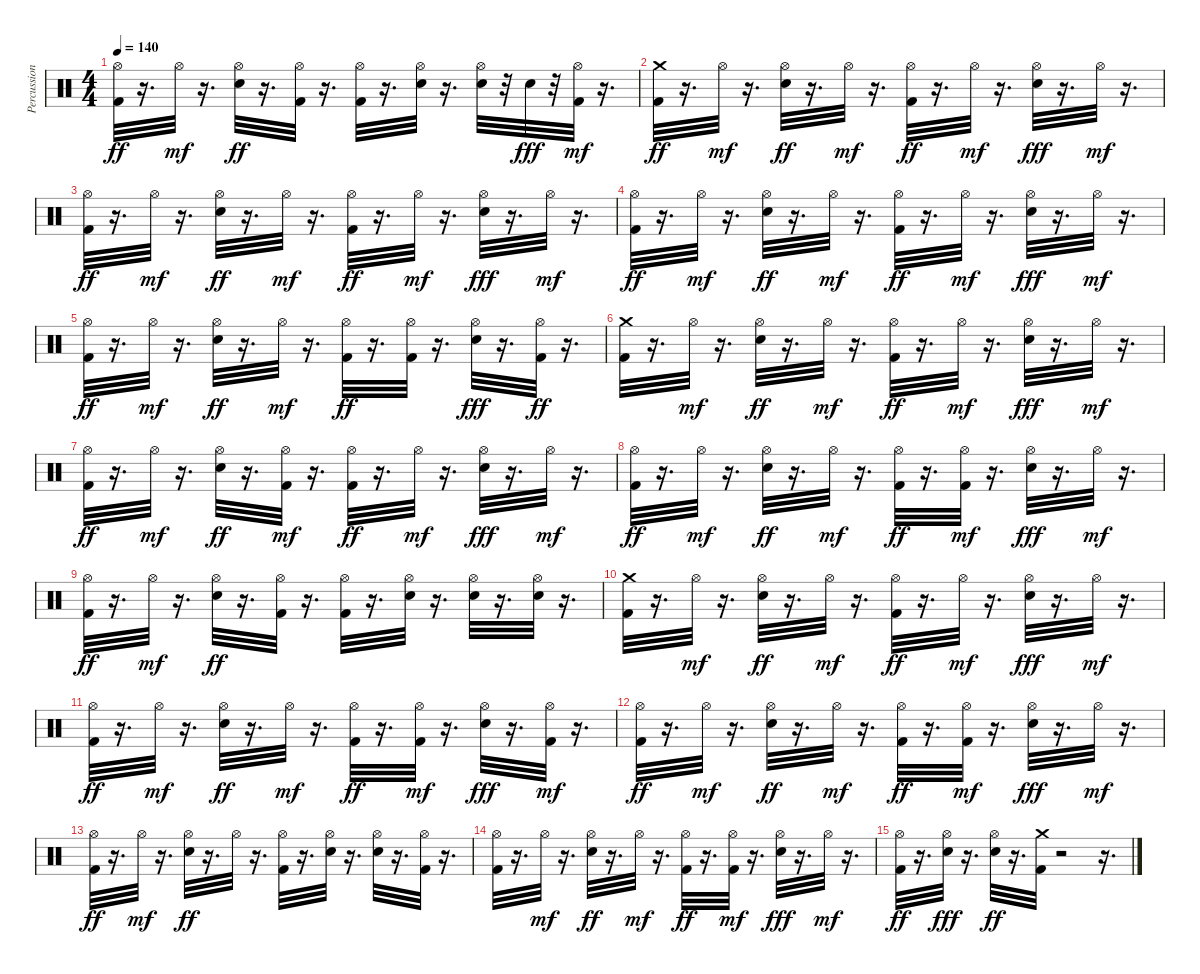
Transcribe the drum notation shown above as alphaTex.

\track ("Percussion" "Percussion") {instrument percussion}
\staff {score}
\articulation defaults
\ts (4 4)
\tempo 140
\clef neutral
\ks c
("Kick (hit) 2" "Hi-Hat (open)").32{dy ff} r.16{d} "Hi-Hat (open)".32{dy mf} r.16{d} ("Electric Snare (hit)" "Hi-Hat (open)").32{dy ff} r.16{d} ("Kick (hit) 2" "Hi-Hat (open)").32 r.16{d} ("Kick (hit) 2" "Hi-Hat (open)").32 r.16{d} ("Electric Snare (hit)" "Hi-Hat (open)").32 r.16{d} ("Electric Snare (hit)" "Hi-Hat (open)").32 r.32 "Electric Snare (hit)".32{dy fff} r.32 ("Kick (hit) 2" "Hi-Hat (open)").32{dy mf} r.16{d} |
("Crash medium (hit)" "Kick (hit) 2").32{dy ff} r.16{d} "Hi-Hat (open)".32{dy mf} r.16{d} ("Electric Snare (hit)" "Hi-Hat (open)").32{dy ff} r.16{d} "Hi-Hat (open)".32{dy mf} r.16{d} ("Kick (hit) 2" "Hi-Hat (open)").32{dy ff} r.16{d} "Hi-Hat (open)".32{dy mf} r.16{d} ("Electric Snare (hit)" "Hi-Hat (open)").32{dy fff} r.16{d} "Hi-Hat (open)".32{dy mf} r.16{d} |
("Kick (hit) 2" "Hi-Hat (open)").32{dy ff} r.16{d} "Hi-Hat (open)".32{dy mf} r.16{d} ("Electric Snare (hit)" "Hi-Hat (open)").32{dy ff} r.16{d} "Hi-Hat (open)".32{dy mf} r.16{d} ("Kick (hit) 2" "Hi-Hat (open)").32{dy ff} r.16{d} "Hi-Hat (open)".32{dy mf} r.16{d} ("Electric Snare (hit)" "Hi-Hat (open)").32{dy fff} r.16{d} "Hi-Hat (open)".32{dy mf} r.16{d} |
("Kick (hit) 2" "Hi-Hat (open)").32{dy ff} r.16{d} "Hi-Hat (open)".32{dy mf} r.16{d} ("Electric Snare (hit)" "Hi-Hat (open)").32{dy ff} r.16{d} "Hi-Hat (open)".32{dy mf} r.16{d} ("Kick (hit) 2" "Hi-Hat (open)").32{dy ff} r.16{d} "Hi-Hat (open)".32{dy mf} r.16{d} ("Electric Snare (hit)" "Hi-Hat (open)").32{dy fff} r.16{d} "Hi-Hat (open)".32{dy mf} r.16{d} |
("Kick (hit) 2" "Hi-Hat (open)").32{dy ff} r.16{d} "Hi-Hat (open)".32{dy mf} r.16{d} ("Electric Snare (hit)" "Hi-Hat (open)").32{dy ff} r.16{d} "Hi-Hat (open)".32{dy mf} r.16{d} ("Kick (hit) 2" "Hi-Hat (open)").32{dy ff} r.16{d} ("Hi-Hat (open)" "Kick (hit) 2").32 r.16{d} ("Electric Snare (hit)" "Hi-Hat (open)").32{dy fff} r.16{d} ("Hi-Hat (open)" "Kick (hit) 2").32{dy ff} r.16{d} |
("Kick (hit) 2" "Crash medium (hit)").32 r.16{d} "Hi-Hat (open)".32{dy mf} r.16{d} ("Electric Snare (hit)" "Hi-Hat (open)").32{dy ff} r.16{d} "Hi-Hat (open)".32{dy mf} r.16{d} ("Kick (hit) 2" "Hi-Hat (open)").32{dy ff} r.16{d} "Hi-Hat (open)".32{dy mf} r.16{d} ("Electric Snare (hit)" "Hi-Hat (open)").32{dy fff} r.16{d} "Hi-Hat (open)".32{dy mf} r.16{d} |
("Kick (hit) 2" "Hi-Hat (open)").32{dy ff} r.16{d} "Hi-Hat (open)".32{dy mf} r.16{d} ("Electric Snare (hit)" "Hi-Hat (open)").32{dy ff} r.16{d} ("Kick (hit) 2" "Hi-Hat (open)").32{dy mf} r.16{d} ("Kick (hit) 2" "Hi-Hat (open)").32{dy ff} r.16{d} "Hi-Hat (open)".32{dy mf} r.16{d} ("Electric Snare (hit)" "Hi-Hat (open)").32{dy fff} r.16{d} "Hi-Hat (open)".32{dy mf} r.16{d} |
("Kick (hit) 2" "Hi-Hat (open)").32{dy ff} r.16{d} "Hi-Hat (open)".32{dy mf} r.16{d} ("Electric Snare (hit)" "Hi-Hat (open)").32{dy ff} r.16{d} "Hi-Hat (open)".32{dy mf} r.16{d} ("Kick (hit) 2" "Hi-Hat (open)").32{dy ff} r.16{d} ("Kick (hit) 2" "Hi-Hat (open)").32{dy mf} r.16{d} ("Electric Snare (hit)" "Hi-Hat (open)").32{dy fff} r.16{d} "Hi-Hat (open)".32{dy mf} r.16{d} |
("Kick (hit) 2" "Hi-Hat (open)").32{dy ff} r.16{d} "Hi-Hat (open)".32{dy mf} r.16{d} ("Electric Snare (hit)" "Hi-Hat (open)").32{dy ff} r.16{d} ("Kick (hit) 2" "Hi-Hat (open)").32 r.16{d} ("Kick (hit) 2" "Hi-Hat (open)").32 r.16{d} ("Electric Snare (hit)" "Hi-Hat (open)").32 r.16{d} ("Electric Snare (hit)" "Hi-Hat (open)").32 r.16{d} ("Electric Snare (hit)" "Hi-Hat (open)").32 r.16{d} |
("Kick (hit) 2" "Crash medium (hit)").32 r.16{d} "Hi-Hat (open)".32{dy mf} r.16{d} ("Electric Snare (hit)" "Hi-Hat (open)").32{dy ff} r.16{d} "Hi-Hat (open)".32{dy mf} r.16{d} ("Kick (hit) 2" "Hi-Hat (open)").32{dy ff} r.16{d} "Hi-Hat (open)".32{dy mf} r.16{d} ("Electric Snare (hit)" "Hi-Hat (open)").32{dy fff} r.16{d} "Hi-Hat (open)".32{dy mf} r.16{d} |
("Kick (hit) 2" "Hi-Hat (open)").32{dy ff} r.16{d} "Hi-Hat (open)".32{dy mf} r.16{d} ("Electric Snare (hit)" "Hi-Hat (open)").32{dy ff} r.16{d} "Hi-Hat (open)".32{dy mf} r.16{d} ("Kick (hit) 2" "Hi-Hat (open)").32{dy ff} r.16{d} ("Kick (hit) 2" "Hi-Hat (open)").32{dy mf} r.16{d} ("Electric Snare (hit)" "Hi-Hat (open)").32{dy fff} r.16{d} ("Kick (hit) 2" "Hi-Hat (open)").32{dy mf} r.16{d} |
("Kick (hit) 2" "Hi-Hat (open)").32{dy ff} r.16{d} "Hi-Hat (open)".32{dy mf} r.16{d} ("Electric Snare (hit)" "Hi-Hat (open)").32{dy ff} r.16{d} "Hi-Hat (open)".32{dy mf} r.16{d} ("Kick (hit) 2" "Hi-Hat (open)").32{dy ff} r.16{d} ("Kick (hit) 2" "Hi-Hat (open)").32{dy mf} r.16{d} ("Electric Snare (hit)" "Hi-Hat (open)").32{dy fff} r.16{d} "Hi-Hat (open)".32{dy mf} r.16{d} |
("Kick (hit) 2" "Hi-Hat (open)").32{dy ff} r.16{d} "Hi-Hat (open)".32{dy mf} r.16{d} ("Electric Snare (hit)" "Hi-Hat (open)").32{dy ff} r.16{d} "Hi-Hat (open)".32 r.16{d} ("Kick (hit) 2" "Hi-Hat (open)").32 r.16{d} ("Electric Snare (hit)" "Hi-Hat (open)").32 r.16{d} ("Electric Snare (hit)" "Hi-Hat (open)").32 r.16{d} ("Kick (hit) 2" "Hi-Hat (open)").32 r.16{d} |
("Kick (hit) 2" "Hi-Hat (open)").32 r.16{d} "Hi-Hat (open)".32{dy mf} r.16{d} ("Electric Snare (hit)" "Hi-Hat (open)").32{dy ff} r.16{d} "Hi-Hat (open)".32{dy mf} r.16{d} ("Kick (hit) 2" "Hi-Hat (open)").32{dy ff} r.16{d} ("Kick (hit) 2" "Hi-Hat (open)").32{dy mf} r.16{d} ("Electric Snare (hit)" "Hi-Hat (open)").32{dy fff} r.16{d} "Hi-Hat (open)".32{dy mf} r.16{d} |
("Kick (hit) 2" "Hi-Hat (open)").32{dy ff} r.16{d} ("Hi-Hat (open)" "Electric Snare (hit)").32{dy fff} r.16{d} ("Electric Snare (hit)" "Hi-Hat (open)").32{dy ff} r.16{d} ("Kick (hit) 2" "Crash medium (hit)").32 r.2 r.16{d}
